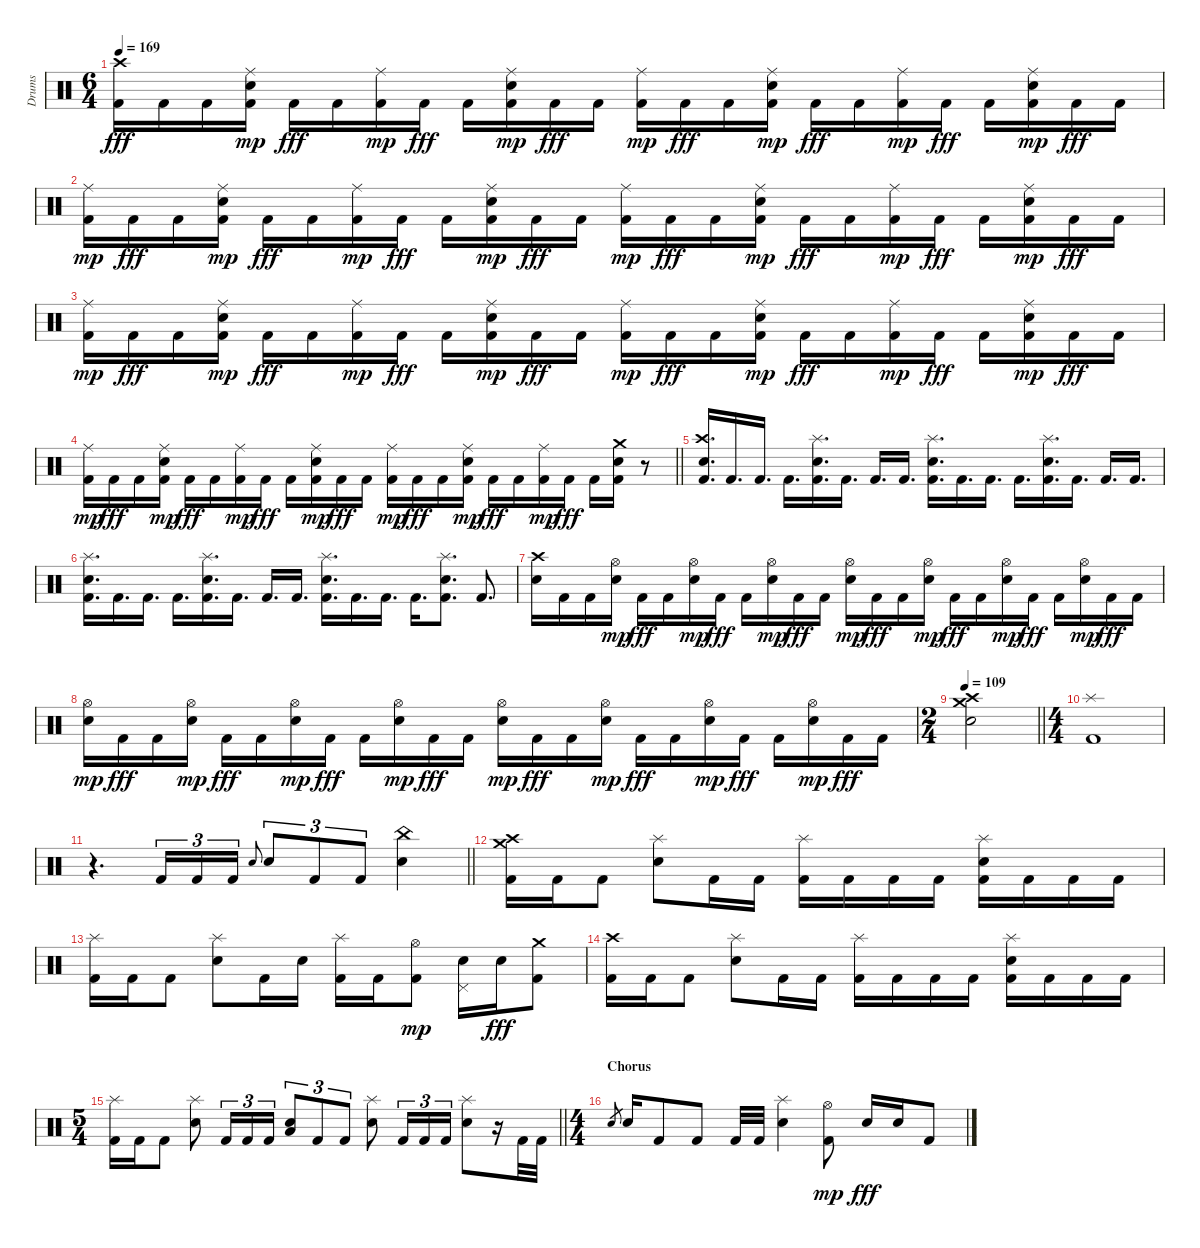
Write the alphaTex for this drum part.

\track ("Drums" "Drums") {instrument percussion}
\staff {score}
\articulation defaults
\ts (6 4)
\tempo 169
\clef neutral
\ks c
("Kick (hit) 2" "Crash high (hit)").16{dy fff} "Kick (hit) 2".16 "Kick (hit) 2".16 ("Kick (hit) 2" "Electric Snare (hit)" "Ride (middle)").16{dy mp} "Kick (hit) 2".16{dy fff} "Kick (hit) 2".16 ("Kick (hit) 2" "Ride (middle)").16{dy mp} "Kick (hit) 2".16{dy fff} "Kick (hit) 2".16 ("Kick (hit) 2" "Electric Snare (hit)" "Ride (middle)").16{dy mp} "Kick (hit) 2".16{dy fff} "Kick (hit) 2".16 ("Kick (hit) 2" "Ride (middle)").16{dy mp} "Kick (hit) 2".16{dy fff} "Kick (hit) 2".16 ("Kick (hit) 2" "Electric Snare (hit)" "Ride (middle)").16{dy mp} "Kick (hit) 2".16{dy fff} "Kick (hit) 2".16 ("Kick (hit) 2" "Ride (middle)").16{dy mp} "Kick (hit) 2".16{dy fff} "Kick (hit) 2".16 ("Kick (hit) 2" "Electric Snare (hit)" "Ride (middle)").16{dy mp} "Kick (hit) 2".16{dy fff} "Kick (hit) 2".16 |
("Kick (hit) 2" "Ride (middle)").16{dy mp} "Kick (hit) 2".16{dy fff} "Kick (hit) 2".16 ("Kick (hit) 2" "Electric Snare (hit)" "Ride (middle)").16{dy mp} "Kick (hit) 2".16{dy fff} "Kick (hit) 2".16 ("Kick (hit) 2" "Ride (middle)").16{dy mp} "Kick (hit) 2".16{dy fff} "Kick (hit) 2".16 ("Kick (hit) 2" "Electric Snare (hit)" "Ride (middle)").16{dy mp} "Kick (hit) 2".16{dy fff} "Kick (hit) 2".16 ("Kick (hit) 2" "Ride (middle)").16{dy mp} "Kick (hit) 2".16{dy fff} "Kick (hit) 2".16 ("Kick (hit) 2" "Electric Snare (hit)" "Ride (middle)").16{dy mp} "Kick (hit) 2".16{dy fff} "Kick (hit) 2".16 ("Kick (hit) 2" "Ride (middle)").16{dy mp} "Kick (hit) 2".16{dy fff} "Kick (hit) 2".16 ("Kick (hit) 2" "Electric Snare (hit)" "Ride (middle)").16{dy mp} "Kick (hit) 2".16{dy fff} "Kick (hit) 2".16 |
("Kick (hit) 2" "Ride (middle)").16{dy mp} "Kick (hit) 2".16{dy fff} "Kick (hit) 2".16 ("Kick (hit) 2" "Electric Snare (hit)" "Ride (middle)").16{dy mp} "Kick (hit) 2".16{dy fff} "Kick (hit) 2".16 ("Kick (hit) 2" "Ride (middle)").16{dy mp} "Kick (hit) 2".16{dy fff} "Kick (hit) 2".16 ("Kick (hit) 2" "Electric Snare (hit)" "Ride (middle)").16{dy mp} "Kick (hit) 2".16{dy fff} "Kick (hit) 2".16 ("Kick (hit) 2" "Ride (middle)").16{dy mp} "Kick (hit) 2".16{dy fff} "Kick (hit) 2".16 ("Kick (hit) 2" "Electric Snare (hit)" "Ride (middle)").16{dy mp} "Kick (hit) 2".16{dy fff} "Kick (hit) 2".16 ("Kick (hit) 2" "Ride (middle)").16{dy mp} "Kick (hit) 2".16{dy fff} "Kick (hit) 2".16 ("Kick (hit) 2" "Electric Snare (hit)" "Ride (middle)").16{dy mp} "Kick (hit) 2".16{dy fff} "Kick (hit) 2".16 |
\barLineRight lightlight
("Kick (hit) 2" "Ride (middle)").16{dy mp} "Kick (hit) 2".16{dy fff} "Kick (hit) 2".16 ("Kick (hit) 2" "Electric Snare (hit)" "Ride (middle)").16{dy mp} "Kick (hit) 2".16{dy fff} "Kick (hit) 2".16 ("Kick (hit) 2" "Ride (middle)").16{dy mp} "Kick (hit) 2".16{dy fff} "Kick (hit) 2".16 ("Kick (hit) 2" "Electric Snare (hit)" "Ride (middle)").16{dy mp} "Kick (hit) 2".16{dy fff} "Kick (hit) 2".16 ("Kick (hit) 2" "Ride (middle)").16{dy mp} "Kick (hit) 2".16{dy fff} "Kick (hit) 2".16 ("Kick (hit) 2" "Electric Snare (hit)" "Ride (middle)").16{dy mp} "Kick (hit) 2".16{dy fff} "Kick (hit) 2".16 ("Kick (hit) 2" "Ride (middle)").16{dy mp} "Kick (hit) 2".16{dy fff} "Kick (hit) 2".16 ("Kick (hit) 2" "Electric Snare (hit)" "Crash medium (hit)").16 r.8 |
("Kick (hit) 2" "Electric Snare (hit)" "Crash high (hit)").16{d} "Kick (hit) 2".16{d} "Kick (hit) 2".16{d} "Kick (hit) 2".16{d} ("Kick (hit) 2" "Electric Snare (hit)" "Splash (hit)").16{d} "Kick (hit) 2".16{d} "Kick (hit) 2".16{d} "Kick (hit) 2".16{d} ("Kick (hit) 2" "Electric Snare (hit)" "Splash (hit)").16{d} "Kick (hit) 2".16{d} "Kick (hit) 2".16{d} "Kick (hit) 2".16{d} ("Kick (hit) 2" "Electric Snare (hit)" "Splash (hit)").16{d} "Kick (hit) 2".16{d} "Kick (hit) 2".16{d} "Kick (hit) 2".16{d} |
("Kick (hit) 2" "Electric Snare (hit)" "Splash (hit)").16{d} "Kick (hit) 2".16{d} "Kick (hit) 2".16{d} "Kick (hit) 2".16{d} ("Kick (hit) 2" "Electric Snare (hit)" "Splash (hit)").16{d} "Kick (hit) 2".16{d} "Kick (hit) 2".16{d} "Kick (hit) 2".16{d} ("Kick (hit) 2" "Electric Snare (hit)" "Splash (hit)").16{d} "Kick (hit) 2".16{d} "Kick (hit) 2".16{d} "Kick (hit) 2".16{d} ("Kick (hit) 2" "Electric Snare (hit)" "Splash (hit)").8{d} "Kick (hit) 2".8{d} |
("Electric Snare (hit)" "Crash high (hit)").16 "Kick (hit) 2".16 "Kick (hit) 2".16 ("Electric Snare (hit)" "Hi-Hat (open)").16{dy mp} "Kick (hit) 2".16{dy fff} "Kick (hit) 2".16 ("Electric Snare (hit)" "Hi-Hat (open)").16{dy mp} "Kick (hit) 2".16{dy fff} "Kick (hit) 2".16 ("Electric Snare (hit)" "Hi-Hat (open)").16{dy mp} "Kick (hit) 2".16{dy fff} "Kick (hit) 2".16 ("Electric Snare (hit)" "Hi-Hat (open)").16{dy mp} "Kick (hit) 2".16{dy fff} "Kick (hit) 2".16 ("Electric Snare (hit)" "Hi-Hat (open)").16{dy mp} "Kick (hit) 2".16{dy fff} "Kick (hit) 2".16 ("Electric Snare (hit)" "Hi-Hat (open)").16{dy mp} "Kick (hit) 2".16{dy fff} "Kick (hit) 2".16 ("Electric Snare (hit)" "Hi-Hat (open)").16{dy mp} "Kick (hit) 2".16{dy fff} "Kick (hit) 2".16 |
("Electric Snare (hit)" "Hi-Hat (open)").16{dy mp} "Kick (hit) 2".16{dy fff} "Kick (hit) 2".16 ("Electric Snare (hit)" "Hi-Hat (open)").16{dy mp} "Kick (hit) 2".16{dy fff} "Kick (hit) 2".16 ("Electric Snare (hit)" "Hi-Hat (open)").16{dy mp} "Kick (hit) 2".16{dy fff} "Kick (hit) 2".16 ("Electric Snare (hit)" "Hi-Hat (open)").16{dy mp} "Kick (hit) 2".16{dy fff} "Kick (hit) 2".16 ("Electric Snare (hit)" "Hi-Hat (open)").16{dy mp} "Kick (hit) 2".16{dy fff} "Kick (hit) 2".16 ("Electric Snare (hit)" "Hi-Hat (open)").16{dy mp} "Kick (hit) 2".16{dy fff} "Kick (hit) 2".16 ("Electric Snare (hit)" "Hi-Hat (open)").16{dy mp} "Kick (hit) 2".16{dy fff} "Kick (hit) 2".16 ("Electric Snare (hit)" "Hi-Hat (open)").16{dy mp} "Kick (hit) 2".16{dy fff} "Kick (hit) 2".16 |
\ts (2 4)
\tempo 109
\barLineRight lightlight
("Electric Snare (hit)" "Crash medium (hit)" "Crash high (hit)").2 |
\ts (4 4)
("Kick (hit) 2" "Splash (hit)").1 |
\barLineRight lightlight
r.4{d} "Kick (hit) 2".16{tu (3 2)} "Kick (hit) 2".16{tu (3 2)} "Kick (hit) 2".16{tu (3 2)} "Electric Snare (hit)".8{gr onbeat} "Electric Snare (hit)".8{tu (3 2)} "Kick (hit) 2".8{tu (3 2)} "Kick (hit) 2".8{tu (3 2)} ("Electric Snare (hit)" "China (hit)").4 |
("Kick (hit) 2" "Crash medium (hit)" "Crash high (hit)").16 "Kick (hit) 2".16 "Kick (hit) 2".8 ("Electric Snare (hit)" "Splash (hit)").8 "Kick (hit) 2".16 "Kick (hit) 2".16 ("Kick (hit) 2" "Splash (hit)").16 "Kick (hit) 2".16 "Kick (hit) 2".16 "Kick (hit) 2".16 ("Kick (hit) 2" "Electric Snare (hit)" "Splash (hit)").16 "Kick (hit) 2".16 "Kick (hit) 2".16 "Kick (hit) 2".16 |
("Kick (hit) 2" "Splash (hit)").16 "Kick (hit) 2".16 "Kick (hit) 2".8 ("Electric Snare (hit)" "Splash (hit)").8 "Kick (hit) 2".16 "Electric Snare (hit)".16 ("Kick (hit) 2" "Splash (hit)").16 "Kick (hit) 2".16 ("Kick (hit) 2" "Hi-Hat (open)").8{dy mp} ("Electric Snare (hit)" "Pedal Hi-Hat (hit)").16 "Electric Snare (hit)".16{dy fff} ("Kick (hit) 2" "Crash medium (hit)").8 |
("Kick (hit) 2" "Crash high (hit)").16 "Kick (hit) 2".16 "Kick (hit) 2".8 ("Electric Snare (hit)" "Splash (hit)").8 "Kick (hit) 2".16 "Kick (hit) 2".16 ("Kick (hit) 2" "Splash (hit)").16 "Kick (hit) 2".16 "Kick (hit) 2".16 "Kick (hit) 2".16 ("Kick (hit) 2" "Electric Snare (hit)" "Splash (hit)").16 "Kick (hit) 2".16 "Kick (hit) 2".16 "Kick (hit) 2".16 |
\ts (5 4)
\barLineRight lightlight
("Kick (hit) 2" "Splash (hit)").16 "Kick (hit) 2".16 "Kick (hit) 2".8 ("Electric Snare (hit)" "Splash (hit)").8 "Kick (hit) 2".16{tu (3 2)} "Kick (hit) 2".16{tu (3 2)} "Kick (hit) 2".16{tu (3 2)} ("Electric Snare (hit)" "Low Floor Tom (hit)").8{tu (3 2)} "Kick (hit) 2".8{tu (3 2)} "Kick (hit) 2".8{tu (3 2)} ("Electric Snare (hit)" "Splash (hit)").8 "Kick (hit) 2".16{tu (3 2)} "Kick (hit) 2".16{tu (3 2)} "Kick (hit) 2".16{tu (3 2)} ("Electric Snare (hit)" "Splash (hit)").8 r.16 "Kick (hit) 2".32 "Kick (hit) 2".32 |
\ts (4 4)
\section ("" "Chorus")
"Electric Snare (hit)".8{gr} "Electric Snare (hit)".16 "Kick (hit) 2".8 "Kick (hit) 2".8 "Kick (hit) 2".32 "Kick (hit) 2".32 ("Electric Snare (hit)" "Splash (hit)").4 ("Kick (hit) 2" "Hi-Hat (open)").8{dy mp} "Electric Snare (hit)".16{dy fff} "Electric Snare (hit)".16 "Kick (hit) 2".8
